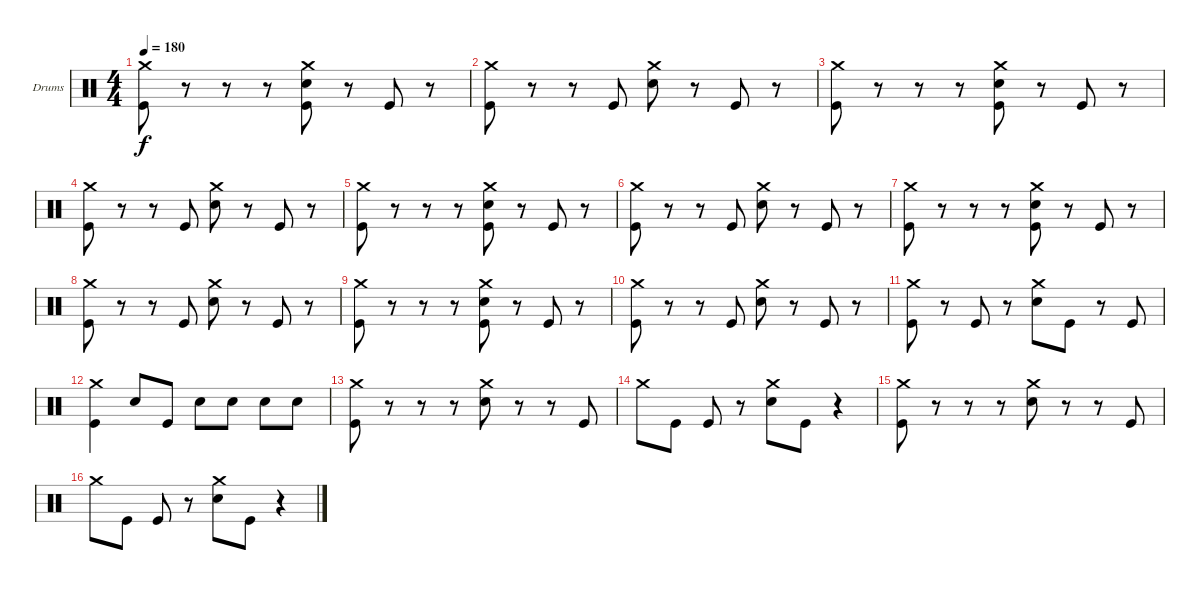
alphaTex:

\defaultSystemsLayout 4
\bracketExtendMode groupsimilarinstruments
\firstSystemTrackNameOrientation horizontal
\otherSystemsTrackNameOrientation horizontal
\track ("Drumkit" "Drums") {instrument percussion}
\staff {score}
\articulation defaults
\ts (4 4)
\tempo 180
\clef neutral
\ks c
("Crash medium (hit)" "Kick (hit)").8{dy f} r.8 r.8 r.8 ("Crash medium (hit)" "Snare (hit) 2" "Kick (hit)").8 r.8 "Kick (hit)".8 r.8 |
("Crash medium (hit)" "Kick (hit)").8 r.8 r.8 "Kick (hit)".8 ("Crash medium (hit)" "Snare (hit) 2").8 r.8 "Kick (hit)".8 r.8 |
("Crash medium (hit)" "Kick (hit)").8 r.8 r.8 r.8 ("Crash medium (hit)" "Snare (hit) 2" "Kick (hit)").8 r.8 "Kick (hit)".8 r.8 |
("Crash medium (hit)" "Kick (hit)").8 r.8 r.8 "Kick (hit)".8 ("Crash medium (hit)" "Snare (hit) 2").8 r.8 "Kick (hit)".8 r.8 |
("Crash medium (hit)" "Kick (hit)").8 r.8 r.8 r.8 ("Crash medium (hit)" "Snare (hit) 2" "Kick (hit)").8 r.8 "Kick (hit)".8 r.8 |
("Crash medium (hit)" "Kick (hit)").8 r.8 r.8 "Kick (hit)".8 ("Crash medium (hit)" "Snare (hit) 2").8 r.8 "Kick (hit)".8 r.8 |
("Crash medium (hit)" "Kick (hit)").8 r.8 r.8 r.8 ("Crash medium (hit)" "Snare (hit) 2" "Kick (hit)").8 r.8 "Kick (hit)".8 r.8 |
("Crash medium (hit)" "Kick (hit)").8 r.8 r.8 "Kick (hit)".8 ("Crash medium (hit)" "Snare (hit) 2").8 r.8 "Kick (hit)".8 r.8 |
("Crash medium (hit)" "Kick (hit)").8 r.8 r.8 r.8 ("Crash medium (hit)" "Snare (hit) 2" "Kick (hit)").8 r.8 "Kick (hit)".8 r.8 |
("Crash medium (hit)" "Kick (hit)").8 r.8 r.8 "Kick (hit)".8 ("Crash medium (hit)" "Snare (hit) 2").8 r.8 "Kick (hit)".8 r.8 |
("Crash medium (hit)" "Kick (hit)").8 r.8 "Kick (hit)".8 r.8 ("Crash medium (hit)" "Snare (hit) 2").8 "Kick (hit)".8 r.8 "Kick (hit)".8 |
("Crash medium (hit)" "Kick (hit)").4 "Snare (hit) 2".8 "Kick (hit)".8 "Snare (hit) 2".8 "Snare (hit) 2".8 "Snare (hit) 2".8 "Snare (hit) 2".8 |
("Crash medium (hit)" "Kick (hit)").8 r.8 r.8 r.8 ("Crash medium (hit)" "Snare (hit) 2").8 r.8 r.8 "Kick (hit)".8 |
"Crash medium (hit)".8 "Kick (hit)".8 "Kick (hit)".8 r.8 ("Crash medium (hit)" "Snare (hit) 2").8 "Kick (hit)".8 r.4 |
("Crash medium (hit)" "Kick (hit)").8 r.8 r.8 r.8 ("Crash medium (hit)" "Snare (hit) 2").8 r.8 r.8 "Kick (hit)".8 |
"Crash medium (hit)".8 "Kick (hit)".8 "Kick (hit)".8 r.8 ("Crash medium (hit)" "Snare (hit) 2").8 "Kick (hit)".8 r.4
